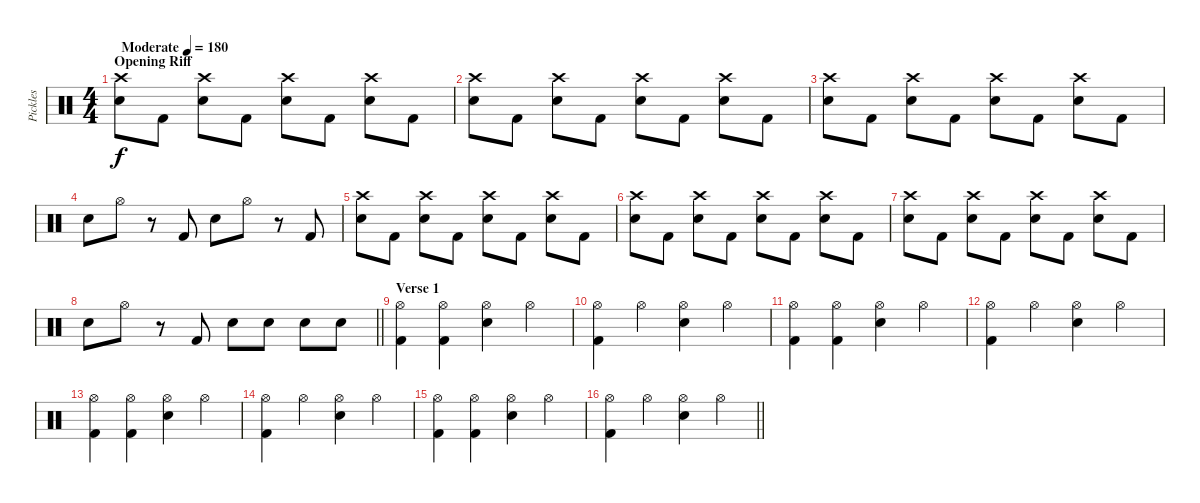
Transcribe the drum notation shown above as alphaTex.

\track ("Pickles" "Pickles") {instrument percussion}
\staff {score}
\articulation defaults
\ts (4 4)
\section ("" "Opening Riff")
\tempo (180 "Moderate")
\clef neutral
\ks c
("Crash high (hit)" "Snare (hit) 2").8{dy f} "Kick (hit) 2".8 ("Crash high (hit)" "Snare (hit) 2").8 "Kick (hit) 2".8 ("Crash high (hit)" "Snare (hit) 2").8 "Kick (hit) 2".8 ("Crash high (hit)" "Snare (hit) 2").8 "Kick (hit) 2".8 |
("Crash high (hit)" "Snare (hit) 2").8 "Kick (hit) 2".8 ("Crash high (hit)" "Snare (hit) 2").8 "Kick (hit) 2".8 ("Crash high (hit)" "Snare (hit) 2").8 "Kick (hit) 2".8 ("Crash high (hit)" "Snare (hit) 2").8 "Kick (hit) 2".8 |
("Crash high (hit)" "Snare (hit) 2").8 "Kick (hit) 2".8 ("Crash high (hit)" "Snare (hit) 2").8 "Kick (hit) 2".8 ("Crash high (hit)" "Snare (hit) 2").8 "Kick (hit) 2".8 ("Crash high (hit)" "Snare (hit) 2").8 "Kick (hit) 2".8 |
"Snare (hit) 2".8 "Hi-Hat (open)".8 r.8{volume 0} "Kick (hit) 2".8{volume 16} "Snare (hit) 2".8 "Hi-Hat (open)".8 r.8{volume 0} "Kick (hit) 2".8{volume 16} |
("Crash high (hit)" "Snare (hit) 2").8 "Kick (hit) 2".8 ("Crash high (hit)" "Snare (hit) 2").8 "Kick (hit) 2".8 ("Crash high (hit)" "Snare (hit) 2").8 "Kick (hit) 2".8 ("Crash high (hit)" "Snare (hit) 2").8 "Kick (hit) 2".8 |
("Crash high (hit)" "Snare (hit) 2").8 "Kick (hit) 2".8 ("Crash high (hit)" "Snare (hit) 2").8 "Kick (hit) 2".8 ("Crash high (hit)" "Snare (hit) 2").8 "Kick (hit) 2".8 ("Crash high (hit)" "Snare (hit) 2").8 "Kick (hit) 2".8 |
("Crash high (hit)" "Snare (hit) 2").8 "Kick (hit) 2".8 ("Crash high (hit)" "Snare (hit) 2").8 "Kick (hit) 2".8 ("Crash high (hit)" "Snare (hit) 2").8 "Kick (hit) 2".8 ("Crash high (hit)" "Snare (hit) 2").8 "Kick (hit) 2".8 |
\barLineRight lightlight "Snare (hit) 2".8 "Hi-Hat (open)".8
r.8{volume 0} "Kick (hit) 2".8{volume 16} "Snare (hit) 2".8 "Snare (hit) 2".8 "Snare (hit) 2".8 "Snare (hit) 2".8 |
\section ("" "Verse 1")
("Hi-Hat (open)" "Kick (hit) 2").4 ("Hi-Hat (open)" "Kick (hit) 2").4 ("Hi-Hat (open)" "Snare (hit) 2").4 "Hi-Hat (open)".4 |
("Hi-Hat (open)" "Kick (hit) 2").4 "Hi-Hat (open)".4 ("Hi-Hat (open)" "Snare (hit) 2").4 "Hi-Hat (open)".4 |
("Hi-Hat (open)" "Kick (hit) 2").4 ("Hi-Hat (open)" "Kick (hit) 2").4 ("Hi-Hat (open)" "Snare (hit) 2").4 "Hi-Hat (open)".4 |
("Hi-Hat (open)" "Kick (hit) 2").4 "Hi-Hat (open)".4 ("Hi-Hat (open)" "Snare (hit) 2").4 "Hi-Hat (open)".4 |
("Hi-Hat (open)" "Kick (hit) 2").4 ("Hi-Hat (open)" "Kick (hit) 2").4 ("Hi-Hat (open)" "Snare (hit) 2").4 "Hi-Hat (open)".4 |
("Hi-Hat (open)" "Kick (hit) 2").4 "Hi-Hat (open)".4 ("Hi-Hat (open)" "Snare (hit) 2").4 "Hi-Hat (open)".4 |
("Hi-Hat (open)" "Kick (hit) 2").4 ("Hi-Hat (open)" "Kick (hit) 2").4 ("Hi-Hat (open)" "Snare (hit) 2").4 "Hi-Hat (open)".4 |
\barLineRight lightlight
("Hi-Hat (open)" "Kick (hit) 2").4 "Hi-Hat (open)".4 ("Hi-Hat (open)" "Snare (hit) 2").4 "Hi-Hat (open)".4
